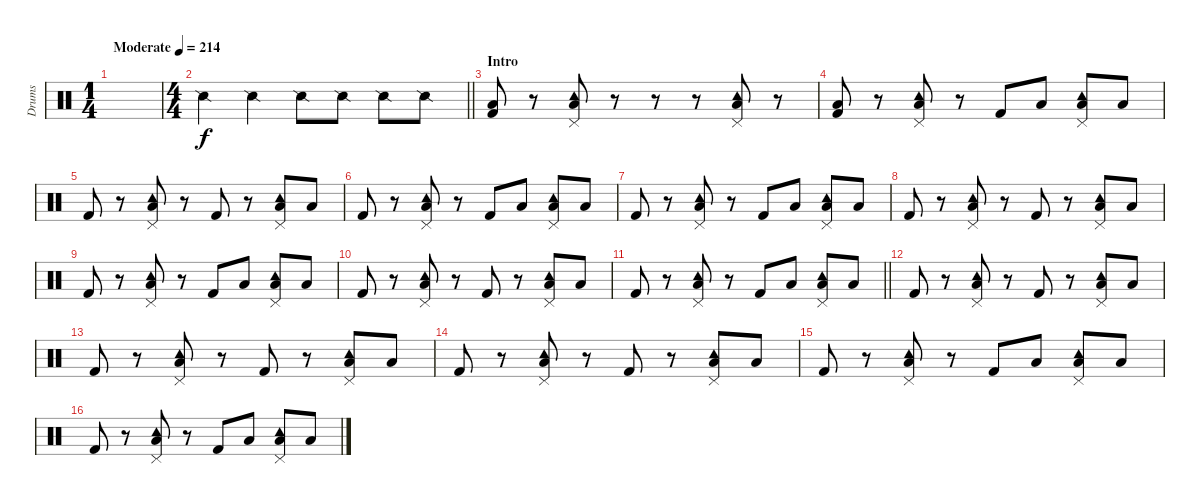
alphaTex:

\track ("Drums" "Drums") {instrument percussion}
\staff {score}
\articulation defaults
\ts (1 4)
\tempo (214 "Moderate")
\clef neutral
\ks c
|
\ts (4 4)
\barLineRight lightlight "Snare (side stick) 2".4 "Snare (side stick) 2".4 "Snare (side stick) 2".8 "Snare (side stick) 2".8 "Snare (side stick) 2".8 "Snare (side stick) 2".8
|
\section ("" "Intro")
("Low Floor Tom (hit)" "Kick (hit) 2").8 r.8 ("Pedal Hi-Hat (hit)" "Tambourine (hit)" "Low Tom (hit)").8 r.8 r.8 r.8 ("Pedal Hi-Hat (hit)" "Tambourine (hit)" "Low Tom (hit)").8 r.8 |
("Low Floor Tom (hit)" "Kick (hit) 2").8 r.8 ("Pedal Hi-Hat (hit)" "Tambourine (hit)" "Low Tom (hit)").8 r.8 "Kick (hit) 2".8 "Low Tom (hit)".8 ("Pedal Hi-Hat (hit)" "Tambourine (hit)" "Low Tom (hit)").8 "Low Tom (hit)".8 |
"Kick (hit) 2".8 r.8 ("Pedal Hi-Hat (hit)" "Tambourine (hit)" "Low Tom (hit)").8 r.8 "Kick (hit) 2".8 r.8 ("Pedal Hi-Hat (hit)" "Tambourine (hit)" "Low Tom (hit)").8 "Low Tom (hit)".8 |
"Kick (hit) 2".8 r.8 ("Pedal Hi-Hat (hit)" "Tambourine (hit)" "Low Tom (hit)").8 r.8 "Kick (hit) 2".8 "Low Tom (hit)".8 ("Pedal Hi-Hat (hit)" "Tambourine (hit)" "Low Tom (hit)").8 "Low Tom (hit)".8 |
"Kick (hit) 2".8 r.8 ("Pedal Hi-Hat (hit)" "Tambourine (hit)" "Low Tom (hit)").8 r.8 "Kick (hit) 2".8 "Low Tom (hit)".8 ("Pedal Hi-Hat (hit)" "Tambourine (hit)" "Low Tom (hit)").8 "Low Tom (hit)".8 |
"Kick (hit) 2".8 r.8 ("Pedal Hi-Hat (hit)" "Tambourine (hit)" "Low Tom (hit)").8 r.8 "Kick (hit) 2".8 r.8 ("Pedal Hi-Hat (hit)" "Tambourine (hit)" "Low Tom (hit)").8 "Low Tom (hit)".8 |
"Kick (hit) 2".8 r.8 ("Pedal Hi-Hat (hit)" "Tambourine (hit)" "Low Tom (hit)").8 r.8 "Kick (hit) 2".8 "Low Tom (hit)".8 ("Pedal Hi-Hat (hit)" "Tambourine (hit)" "Low Tom (hit)").8 "Low Tom (hit)".8 |
"Kick (hit) 2".8 r.8 ("Pedal Hi-Hat (hit)" "Tambourine (hit)" "Low Tom (hit)").8 r.8 "Kick (hit) 2".8 r.8 ("Pedal Hi-Hat (hit)" "Tambourine (hit)" "Low Tom (hit)").8 "Low Tom (hit)".8 |
\barLineRight lightlight "Kick (hit) 2".8
r.8 ("Pedal Hi-Hat (hit)" "Tambourine (hit)" "Low Tom (hit)").8 r.8 "Kick (hit) 2".8 "Low Tom (hit)".8 ("Pedal Hi-Hat (hit)" "Tambourine (hit)" "Low Tom (hit)").8 "Low Tom (hit)".8 |
"Kick (hit) 2".8 r.8 ("Pedal Hi-Hat (hit)" "Tambourine (hit)" "Low Tom (hit)").8 r.8 "Kick (hit) 2".8 r.8 ("Pedal Hi-Hat (hit)" "Tambourine (hit)" "Low Tom (hit)").8 "Low Tom (hit)".8 |
"Kick (hit) 2".8 r.8 ("Pedal Hi-Hat (hit)" "Tambourine (hit)" "Low Tom (hit)").8 r.8 "Kick (hit) 2".8 r.8 ("Pedal Hi-Hat (hit)" "Tambourine (hit)" "Low Tom (hit)").8 "Low Tom (hit)".8 |
"Kick (hit) 2".8 r.8 ("Pedal Hi-Hat (hit)" "Tambourine (hit)" "Low Tom (hit)").8 r.8 "Kick (hit) 2".8 r.8 ("Pedal Hi-Hat (hit)" "Tambourine (hit)" "Low Tom (hit)").8 "Low Tom (hit)".8 |
"Kick (hit) 2".8 r.8 ("Pedal Hi-Hat (hit)" "Tambourine (hit)" "Low Tom (hit)").8 r.8 "Kick (hit) 2".8 "Low Tom (hit)".8 ("Pedal Hi-Hat (hit)" "Tambourine (hit)" "Low Tom (hit)").8 "Low Tom (hit)".8 |
"Kick (hit) 2".8 r.8 ("Pedal Hi-Hat (hit)" "Tambourine (hit)" "Low Tom (hit)").8 r.8 "Kick (hit) 2".8 "Low Tom (hit)".8 ("Pedal Hi-Hat (hit)" "Tambourine (hit)" "Low Tom (hit)").8 "Low Tom (hit)".8
